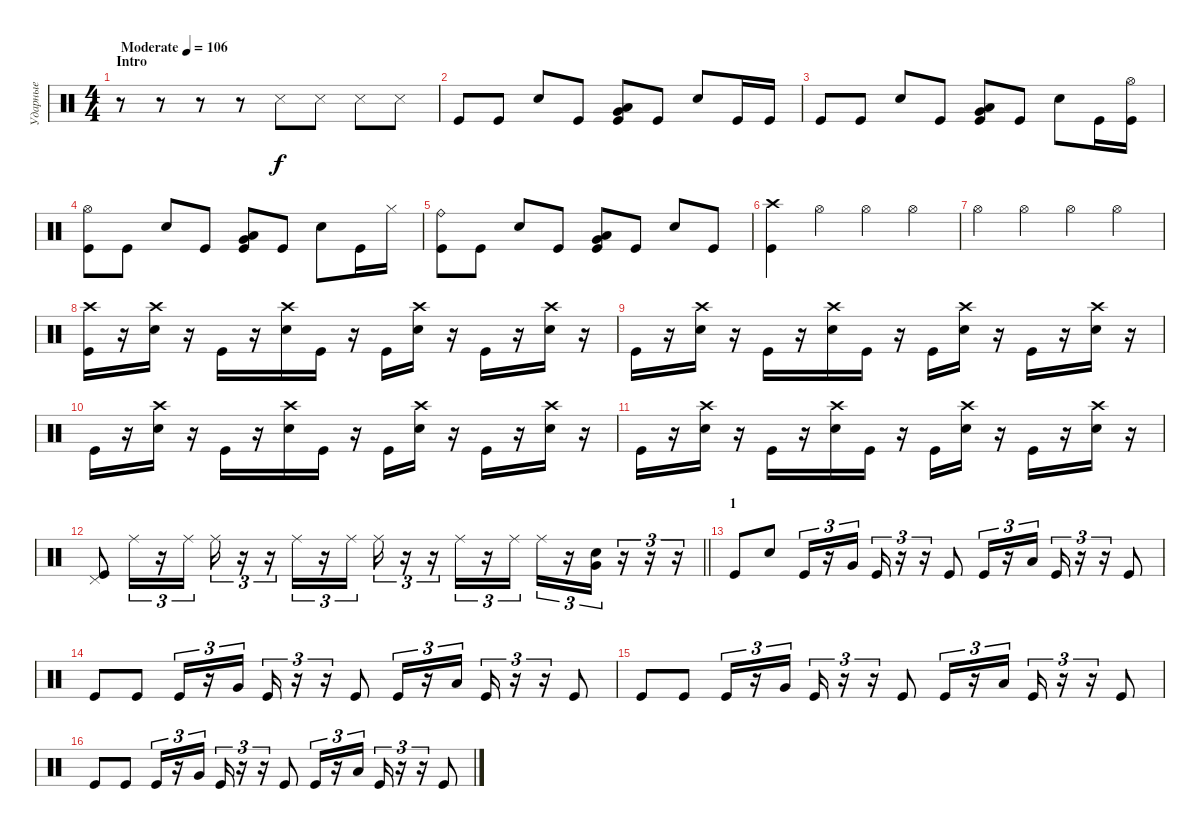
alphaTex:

\track ("Ударные" "Ударные") {instrument percussion}
\staff {score}
\articulation defaults
\ts (4 4)
\section ("" "Intro")
\tempo (106 "Moderate")
\clef neutral
\ks c
r.8{dy f} r.8 r.8 r.8 "Snare (side stick) 3".8 "Snare (side stick) 3".8 "Snare (side stick) 3".8 "Snare (side stick) 3".8 |
"Kick (hit)".8 "Kick (hit)".8 "Snare (hit) 2".8 "Kick (hit)".8 ("Kick (hit)" "Very Low Tom (hit)" "Low Floor Tom (hit)").8 "Kick (hit)".8 "Snare (hit) 2".8 "Kick (hit)".16 "Kick (hit)".16 |
"Kick (hit)".8 "Kick (hit)".8 "Snare (hit) 2".8 "Kick (hit)".8 ("Kick (hit)" "Very Low Tom (hit)" "Low Floor Tom (hit)").8 "Kick (hit)".8 "Snare (hit) 2".8 "Kick (hit)".16 ("Kick (hit)" "Hi-Hat (open)").16 |
("Kick (hit)" "Hi-Hat (open)").8 "Kick (hit)".8 "Snare (hit) 2".8 "Kick (hit)".8 ("Kick (hit)" "Very Low Tom (hit)" "Low Floor Tom (hit)").8 "Kick (hit)".8 "Snare (hit) 2".8 "Kick (hit)".16 "Hi-Hat (closed)".16 |
("Kick (hit)" "Ride (bell)").8 "Kick (hit)".8 "Snare (hit) 2".8 "Kick (hit)".8 ("Kick (hit)" "Very Low Tom (hit)" "Low Floor Tom (hit)").8 "Kick (hit)".8 "Snare (hit) 2".8 "Kick (hit)".8 |
("Kick (hit)" "Crash high (hit)").4 "Hi-Hat (open)".4 "Hi-Hat (open)".4 "Hi-Hat (open)".4 |
"Hi-Hat (open)".4 "Hi-Hat (open)".4 "Hi-Hat (open)".4 "Hi-Hat (open)".4 |
("Kick (hit)" "Crash high (hit)").16 r.16 ("Snare (hit) 2" "Crash high (hit)").16 r.16 "Kick (hit)".16 r.16 ("Snare (hit) 2" "Crash high (hit)").16 "Kick (hit)".16 r.16 "Kick (hit)".16 ("Snare (hit) 2" "Crash high (hit)").16 r.16 "Kick (hit)".16 r.16 ("Snare (hit) 2" "Crash high (hit)").16 r.16 |
"Kick (hit)".16 r.16 ("Snare (hit) 2" "Crash high (hit)").16 r.16 "Kick (hit)".16 r.16 ("Snare (hit) 2" "Crash high (hit)").16 "Kick (hit)".16 r.16 "Kick (hit)".16 ("Snare (hit) 2" "Crash high (hit)").16 r.16 "Kick (hit)".16 r.16 ("Snare (hit) 2" "Crash high (hit)").16 r.16 |
"Kick (hit)".16 r.16 ("Snare (hit) 2" "Crash high (hit)").16 r.16 "Kick (hit)".16 r.16 ("Snare (hit) 2" "Crash high (hit)").16 "Kick (hit)".16 r.16 "Kick (hit)".16 ("Snare (hit) 2" "Crash high (hit)").16 r.16 "Kick (hit)".16 r.16 ("Snare (hit) 2" "Crash high (hit)").16 r.16 |
"Kick (hit)".16 r.16 ("Snare (hit) 2" "Crash high (hit)").16 r.16 "Kick (hit)".16 r.16 ("Snare (hit) 2" "Crash high (hit)").16 "Kick (hit)".16 r.16 "Kick (hit)".16 ("Snare (hit) 2" "Crash high (hit)").16 r.16 "Kick (hit)".16 r.16 ("Snare (hit) 2" "Crash high (hit)").16 r.16 |
\barLineRight lightlight
("Kick (hit)" "Pedal Hi-Hat (hit)").8 "Ride (middle)".16{tu (3 2)} r.16{tu (3 2)} "Ride (middle)".16{tu (3 2)} "Ride (middle)".16{tu (3 2)} r.16{tu (3 2)} r.16{tu (3 2)} "Ride (middle)".16{tu (3 2)} r.16{tu (3 2)} "Ride (middle)".16{tu (3 2)} "Ride (middle)".16{tu (3 2)} r.16{tu (3 2)} r.16{tu (3 2)} "Ride (middle)".16{tu (3 2)} r.16{tu (3 2)} "Ride (middle)".16{tu (3 2)} "Ride (middle)".16{tu (3 2)} r.16{tu (3 2)} ("Snare (hit) 2" "Very Low Tom (hit)").16{tu (3 2)} r.16{tu (3 2)} r.16{tu (3 2)} r.16{tu (3 2)} |
\section ("" "1")
"Kick (hit)".8 "Snare (hit) 2".8 "Kick (hit)".16{tu (3 2)} r.16{tu (3 2)} "Very Low Tom (hit)".16{tu (3 2)} "Kick (hit)".16{tu (3 2)} r.16{tu (3 2)} r.16{tu (3 2)} "Kick (hit)".8 "Kick (hit)".16{tu (3 2)} r.16{tu (3 2)} "Low Floor Tom (hit)".16{tu (3 2)} "Kick (hit)".16{tu (3 2)} r.16{tu (3 2)} r.16{tu (3 2)} "Kick (hit)".8 |
"Kick (hit)".8 "Kick (hit)".8 "Kick (hit)".16{tu (3 2)} r.16{tu (3 2)} "Very Low Tom (hit)".16{tu (3 2)} "Kick (hit)".16{tu (3 2)} r.16{tu (3 2)} r.16{tu (3 2)} "Kick (hit)".8 "Kick (hit)".16{tu (3 2)} r.16{tu (3 2)} "Low Floor Tom (hit)".16{tu (3 2)} "Kick (hit)".16{tu (3 2)} r.16{tu (3 2)} r.16{tu (3 2)} "Kick (hit)".8 |
"Kick (hit)".8 "Kick (hit)".8 "Kick (hit)".16{tu (3 2)} r.16{tu (3 2)} "Very Low Tom (hit)".16{tu (3 2)} "Kick (hit)".16{tu (3 2)} r.16{tu (3 2)} r.16{tu (3 2)} "Kick (hit)".8 "Kick (hit)".16{tu (3 2)} r.16{tu (3 2)} "Low Floor Tom (hit)".16{tu (3 2)} "Kick (hit)".16{tu (3 2)} r.16{tu (3 2)} r.16{tu (3 2)} "Kick (hit)".8 |
"Kick (hit)".8 "Kick (hit)".8 "Kick (hit)".16{tu (3 2)} r.16{tu (3 2)} "Very Low Tom (hit)".16{tu (3 2)} "Kick (hit)".16{tu (3 2)} r.16{tu (3 2)} r.16{tu (3 2)} "Kick (hit)".8 "Kick (hit)".16{tu (3 2)} r.16{tu (3 2)} "Low Floor Tom (hit)".16{tu (3 2)} "Kick (hit)".16{tu (3 2)} r.16{tu (3 2)} r.16{tu (3 2)} "Kick (hit)".8
